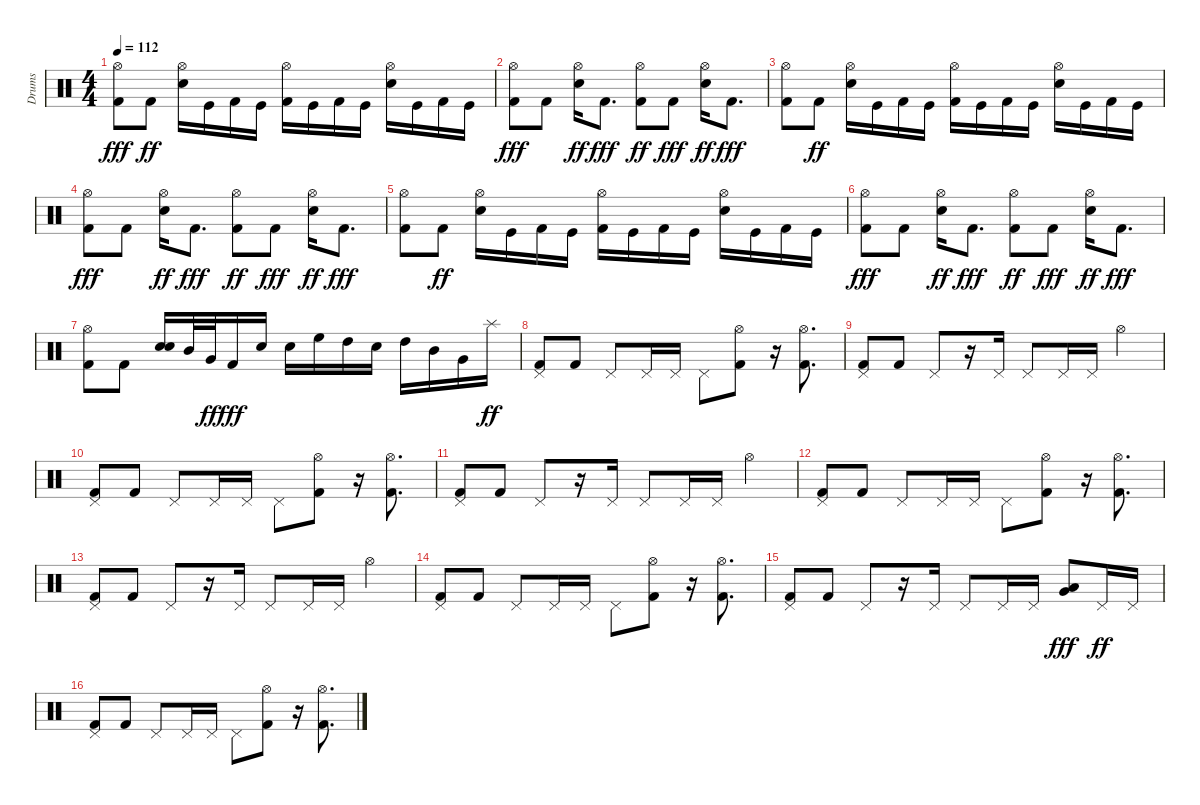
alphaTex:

\track ("Drums" "Drums") {instrument percussion}
\staff {score}
\articulation defaults
\ts (4 4)
\tempo 112
\clef neutral
\ks c
("Kick (hit) 2" "Hi-Hat (open)").8{dy fff} "Kick (hit) 2".8{dy ff} ("Snare (hit) 2" "Hi-Hat (open)").16 "Kick (hit)".16 "Kick (hit) 2".16 "Kick (hit)".16 ("Kick (hit) 2" "Hi-Hat (open)").16 "Kick (hit)".16 "Kick (hit) 2".16 "Kick (hit)".16 ("Snare (hit) 2" "Hi-Hat (open)").16 "Kick (hit)".16 "Kick (hit) 2".16 "Kick (hit)".16 |
("Kick (hit) 2" "Hi-Hat (open)").8{dy fff} "Kick (hit) 2".8 ("Snare (hit) 2" "Hi-Hat (open)").16{dy ff} "Kick (hit) 2".8{d dy fff} ("Kick (hit) 2" "Hi-Hat (open)").8{dy ff} "Kick (hit) 2".8{dy fff} ("Snare (hit) 2" "Hi-Hat (open)").16{dy ff} "Kick (hit) 2".8{d dy fff} |
("Kick (hit) 2" "Hi-Hat (open)").8 "Kick (hit) 2".8{dy ff} ("Snare (hit) 2" "Hi-Hat (open)").16 "Kick (hit)".16 "Kick (hit) 2".16 "Kick (hit)".16 ("Kick (hit) 2" "Hi-Hat (open)").16 "Kick (hit)".16 "Kick (hit) 2".16 "Kick (hit)".16 ("Snare (hit) 2" "Hi-Hat (open)").16 "Kick (hit)".16 "Kick (hit) 2".16 "Kick (hit)".16 |
("Kick (hit) 2" "Hi-Hat (open)").8{dy fff} "Kick (hit) 2".8 ("Snare (hit) 2" "Hi-Hat (open)").16{dy ff} "Kick (hit) 2".8{d dy fff} ("Kick (hit) 2" "Hi-Hat (open)").8{dy ff} "Kick (hit) 2".8{dy fff} ("Snare (hit) 2" "Hi-Hat (open)").16{dy ff} "Kick (hit) 2".8{d dy fff} |
("Kick (hit) 2" "Hi-Hat (open)").8 "Kick (hit) 2".8{dy ff} ("Snare (hit) 2" "Hi-Hat (open)").16 "Kick (hit)".16 "Kick (hit) 2".16 "Kick (hit)".16 ("Kick (hit) 2" "Hi-Hat (open)").16 "Kick (hit)".16 "Kick (hit) 2".16 "Kick (hit)".16 ("Snare (hit) 2" "Hi-Hat (open)").16 "Kick (hit)".16 "Kick (hit) 2".16 "Kick (hit)".16 |
("Kick (hit) 2" "Hi-Hat (open)").8{dy fff} "Kick (hit) 2".8 ("Snare (hit) 2" "Hi-Hat (open)").16{dy ff} "Kick (hit) 2".8{d dy fff} ("Kick (hit) 2" "Hi-Hat (open)").8{dy ff} "Kick (hit) 2".8{dy fff} ("Snare (hit) 2" "Hi-Hat (open)").16{dy ff} "Kick (hit) 2".8{d dy fff} |
("Kick (hit) 2" "Hi-Hat (open)").8 "Kick (hit) 2".8 ("Electric Snare (hit)" "Electric Snare (hit)").16 "Mid Tom (hit)".32 "Very Low Tom (hit)".32{dy ff} "Kick (hit) 2".16{dy fff} "Electric Snare (hit)".16 "Electric Snare (hit)".16 "High Floor Tom (hit)".16 "High Tom (hit)".16 "Snare (hit) 2".16 "High Tom (hit)".16 "Mid Tom (hit)".16 "Very Low Tom (hit)".16 "Splash (hit)".16{dy ff} |
("Kick (hit) 2" "Pedal Hi-Hat (hit)").8 "Kick (hit) 2".8 "Pedal Hi-Hat (hit)".8 "Pedal Hi-Hat (hit)".16 "Pedal Hi-Hat (hit)".16 "Pedal Hi-Hat (hit)".8 ("Kick (hit) 2" "Hi-Hat (open)").8 r.16 ("Kick (hit) 2" "Hi-Hat (open)").8{d} |
("Kick (hit) 2" "Pedal Hi-Hat (hit)").8 "Kick (hit) 2".8 "Pedal Hi-Hat (hit)".8 r.16 "Pedal Hi-Hat (hit)".16 "Pedal Hi-Hat (hit)".8 "Pedal Hi-Hat (hit)".16 "Pedal Hi-Hat (hit)".16 "Hi-Hat (open)".4 |
("Kick (hit) 2" "Pedal Hi-Hat (hit)").8 "Kick (hit) 2".8 "Pedal Hi-Hat (hit)".8 "Pedal Hi-Hat (hit)".16 "Pedal Hi-Hat (hit)".16 "Pedal Hi-Hat (hit)".8 ("Kick (hit) 2" "Hi-Hat (open)").8 r.16 ("Kick (hit) 2" "Hi-Hat (open)").8{d} |
("Kick (hit) 2" "Pedal Hi-Hat (hit)").8 "Kick (hit) 2".8 "Pedal Hi-Hat (hit)".8 r.16 "Pedal Hi-Hat (hit)".16 "Pedal Hi-Hat (hit)".8 "Pedal Hi-Hat (hit)".16 "Pedal Hi-Hat (hit)".16 "Hi-Hat (open)".4 |
("Kick (hit) 2" "Pedal Hi-Hat (hit)").8 "Kick (hit) 2".8 "Pedal Hi-Hat (hit)".8 "Pedal Hi-Hat (hit)".16 "Pedal Hi-Hat (hit)".16 "Pedal Hi-Hat (hit)".8 ("Kick (hit) 2" "Hi-Hat (open)").8 r.16 ("Kick (hit) 2" "Hi-Hat (open)").8{d} |
("Kick (hit) 2" "Pedal Hi-Hat (hit)").8 "Kick (hit) 2".8 "Pedal Hi-Hat (hit)".8 r.16 "Pedal Hi-Hat (hit)".16 "Pedal Hi-Hat (hit)".8 "Pedal Hi-Hat (hit)".16 "Pedal Hi-Hat (hit)".16 "Hi-Hat (open)".4 |
("Kick (hit) 2" "Pedal Hi-Hat (hit)").8 "Kick (hit) 2".8 "Pedal Hi-Hat (hit)".8 "Pedal Hi-Hat (hit)".16 "Pedal Hi-Hat (hit)".16 "Pedal Hi-Hat (hit)".8 ("Kick (hit) 2" "Hi-Hat (open)").8 r.16 ("Kick (hit) 2" "Hi-Hat (open)").8{d} |
("Kick (hit) 2" "Pedal Hi-Hat (hit)").8 "Kick (hit) 2".8 "Pedal Hi-Hat (hit)".8 r.16 "Pedal Hi-Hat (hit)".16 "Pedal Hi-Hat (hit)".8 "Pedal Hi-Hat (hit)".16 "Pedal Hi-Hat (hit)".16 ("Very Low Tom (hit)" "Low Floor Tom (hit)").8{dy fff} "Pedal Hi-Hat (hit)".16{dy ff} "Pedal Hi-Hat (hit)".16 |
("Kick (hit) 2" "Pedal Hi-Hat (hit)").8 "Kick (hit) 2".8 "Pedal Hi-Hat (hit)".8 "Pedal Hi-Hat (hit)".16 "Pedal Hi-Hat (hit)".16 "Pedal Hi-Hat (hit)".8 ("Kick (hit) 2" "Hi-Hat (open)").8 r.16 ("Kick (hit) 2" "Hi-Hat (open)").8{d}
